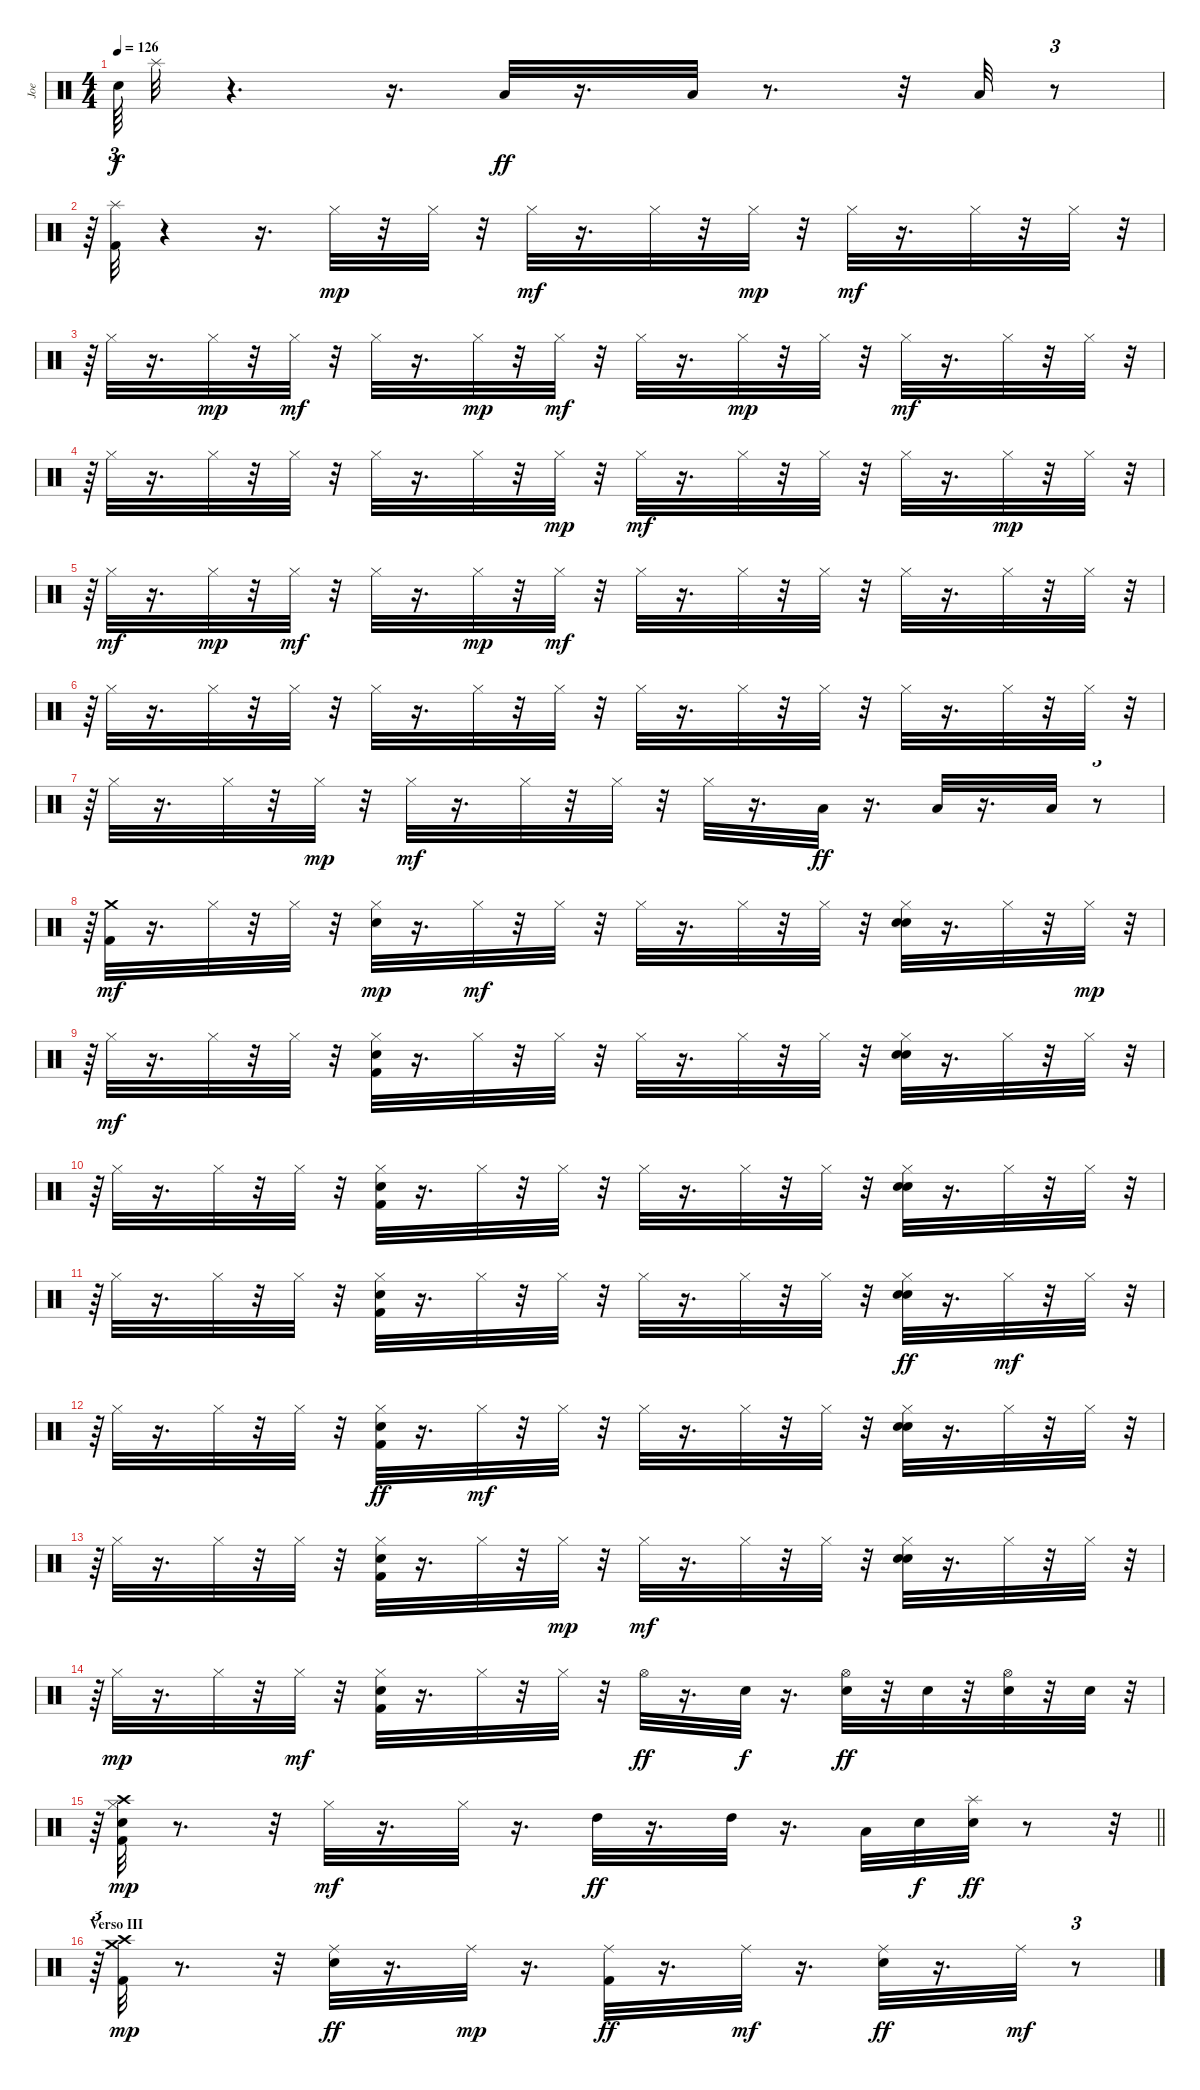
\track ("Joe" "Joe") {instrument percussion}
\staff {score}
\articulation defaults
\ts (4 4)
\tempo 126
\clef neutral
\ks c "Snare (hit)"{t}.64{tu (3 2) dy f} "Splash (hit)".32
r.4{d} r.16{d} "Low Tom (hit)".32{dy ff} r.16{d} "Low Tom (hit)".32 r.8{d} r.32 "Low Floor Tom (hit)".32 r.8{tu (3 2)} |
r.64{tu (3 2)} ("Kick (hit) 2" "Splash (hit)").32 r.4 r.16{d} "Hi-Hat (closed)".32{dy mp} r.32 "Hi-Hat (closed)".32 r.32 "Hi-Hat (closed)".32{dy mf} r.16{d} "Hi-Hat (closed)".32 r.32 "Hi-Hat (closed)".32{dy mp} r.32 "Hi-Hat (closed)".32{dy mf} r.16{d} "Hi-Hat (closed)".32 r.32 "Hi-Hat (closed)".32 r.32{tu (3 2)} |
r.64{tu (3 2)} "Hi-Hat (closed)".32 r.16{d} "Hi-Hat (closed)".32{dy mp} r.32 "Hi-Hat (closed)".32{dy mf} r.32 "Hi-Hat (closed)".32 r.16{d} "Hi-Hat (closed)".32{dy mp} r.32 "Hi-Hat (closed)".32{dy mf} r.32 "Hi-Hat (closed)".32 r.16{d} "Hi-Hat (closed)".32{dy mp} r.32 "Hi-Hat (closed)".32 r.32 "Hi-Hat (closed)".32{dy mf} r.16{d} "Hi-Hat (closed)".32 r.32 "Hi-Hat (closed)".32 r.32{tu (3 2)} |
r.64{tu (3 2)} "Hi-Hat (closed)".32 r.16{d} "Hi-Hat (closed)".32 r.32 "Hi-Hat (closed)".32 r.32 "Hi-Hat (closed)".32 r.16{d} "Hi-Hat (closed)".32 r.32 "Hi-Hat (closed)".32{dy mp} r.32 "Hi-Hat (closed)".32{dy mf} r.16{d} "Hi-Hat (closed)".32 r.32 "Hi-Hat (closed)".32 r.32 "Hi-Hat (closed)".32 r.16{d} "Hi-Hat (closed)".32{dy mp} r.32 "Hi-Hat (closed)".32 r.32{tu (3 2)} |
r.64{tu (3 2)} "Hi-Hat (closed)".32{dy mf} r.16{d} "Hi-Hat (closed)".32{dy mp} r.32 "Hi-Hat (closed)".32{dy mf} r.32 "Hi-Hat (closed)".32 r.16{d} "Hi-Hat (closed)".32{dy mp} r.32 "Hi-Hat (closed)".32{dy mf} r.32 "Hi-Hat (closed)".32 r.16{d} "Hi-Hat (closed)".32 r.32 "Hi-Hat (closed)".32 r.32 "Hi-Hat (closed)".32 r.16{d} "Hi-Hat (closed)".32 r.32 "Hi-Hat (closed)".32 r.32{tu (3 2)} |
r.64{tu (3 2)} "Hi-Hat (closed)".32 r.16{d} "Hi-Hat (closed)".32 r.32 "Hi-Hat (closed)".32 r.32 "Hi-Hat (closed)".32 r.16{d} "Hi-Hat (closed)".32 r.32 "Hi-Hat (closed)".32 r.32 "Hi-Hat (closed)".32 r.16{d} "Hi-Hat (closed)".32 r.32 "Hi-Hat (closed)".32 r.32 "Hi-Hat (closed)".32 r.16{d} "Hi-Hat (closed)".32 r.32 "Hi-Hat (closed)".32 r.32{tu (3 2)} |
r.64{tu (3 2)} "Hi-Hat (closed)".32 r.16{d} "Hi-Hat (closed)".32 r.32 "Hi-Hat (closed)".32{dy mp} r.32 "Hi-Hat (closed)".32{dy mf} r.16{d} "Hi-Hat (closed)".32 r.32 "Hi-Hat (closed)".32 r.32 "Hi-Hat (closed)".32 r.16{d} "Low Tom (hit)".32{dy ff} r.16{d} "Low Tom (hit)".32 r.16{d} "Low Floor Tom (hit)".32 r.8{tu (3 2)} |
r.64{tu (3 2)} ("Kick (hit) 2" "Crash medium (hit)").32{dy mf} r.16{d} "Hi-Hat (closed)".32 r.32 "Hi-Hat (closed)".32 r.32 ("Hi-Hat (closed)" "Hand Clap (hit)").32{dy mp} r.16{d} "Hi-Hat (closed)".32{dy mf} r.32 "Hi-Hat (closed)".32 r.32 "Hi-Hat (closed)".32 r.16{d} "Hi-Hat (closed)".32 r.32 "Hi-Hat (closed)".32 r.32 ("Electric Snare (hit)" "Hi-Hat (closed)" "Hand Clap (hit)").32 r.16{d} "Hi-Hat (closed)".32 r.32 "Hi-Hat (closed)".32{dy mp} r.32{tu (3 2)} |
r.64{tu (3 2)} "Hi-Hat (closed)".32{dy mf} r.16{d} "Hi-Hat (closed)".32 r.32 "Hi-Hat (closed)".32 r.32 ("Kick (hit) 2" "Hi-Hat (closed)" "Hand Clap (hit)").32 r.16{d} "Hi-Hat (closed)".32 r.32 "Hi-Hat (closed)".32 r.32 "Hi-Hat (closed)".32 r.16{d} "Hi-Hat (closed)".32 r.32 "Hi-Hat (closed)".32 r.32 ("Electric Snare (hit)" "Hi-Hat (closed)" "Hand Clap (hit)").32 r.16{d} "Hi-Hat (closed)".32 r.32 "Hi-Hat (closed)".32 r.32{tu (3 2)} |
r.64{tu (3 2)} "Hi-Hat (closed)".32 r.16{d} "Hi-Hat (closed)".32 r.32 "Hi-Hat (closed)".32 r.32 ("Kick (hit) 2" "Hi-Hat (closed)" "Hand Clap (hit)").32 r.16{d} "Hi-Hat (closed)".32 r.32 "Hi-Hat (closed)".32 r.32 "Hi-Hat (closed)".32 r.16{d} "Hi-Hat (closed)".32 r.32 "Hi-Hat (closed)".32 r.32 ("Electric Snare (hit)" "Hi-Hat (closed)" "Hand Clap (hit)").32 r.16{d} "Hi-Hat (closed)".32 r.32 "Hi-Hat (closed)".32 r.32{tu (3 2)} |
r.64{tu (3 2)} "Hi-Hat (closed)".32 r.16{d} "Hi-Hat (closed)".32 r.32 "Hi-Hat (closed)".32 r.32 ("Kick (hit) 2" "Hi-Hat (closed)" "Hand Clap (hit)").32 r.16{d} "Hi-Hat (closed)".32 r.32 "Hi-Hat (closed)".32 r.32 "Hi-Hat (closed)".32 r.16{d} "Hi-Hat (closed)".32 r.32 "Hi-Hat (closed)".32 r.32 ("Hi-Hat (closed)" "Hand Clap (hit)" "Electric Snare (hit)").32{dy ff} r.16{d} "Hi-Hat (closed)".32{dy mf} r.32 "Hi-Hat (closed)".32 r.32{tu (3 2)} |
r.64{tu (3 2)} "Hi-Hat (closed)".32 r.16{d} "Hi-Hat (closed)".32 r.32 "Hi-Hat (closed)".32 r.32 ("Hi-Hat (closed)" "Hand Clap (hit)" "Kick (hit) 2").32{dy ff} r.16{d} "Hi-Hat (closed)".32{dy mf} r.32 "Hi-Hat (closed)".32 r.32 "Hi-Hat (closed)".32 r.16{d} "Hi-Hat (closed)".32 r.32 "Hi-Hat (closed)".32 r.32 ("Electric Snare (hit)" "Hi-Hat (closed)" "Hand Clap (hit)").32 r.16{d} "Hi-Hat (closed)".32 r.32 "Hi-Hat (closed)".32 r.32{tu (3 2)} |
r.64{tu (3 2)} "Hi-Hat (closed)".32 r.16{d} "Hi-Hat (closed)".32 r.32 "Hi-Hat (closed)".32 r.32 ("Kick (hit) 2" "Hi-Hat (closed)" "Hand Clap (hit)").32 r.16{d} "Hi-Hat (closed)".32 r.32 "Hi-Hat (closed)".32{dy mp} r.32 "Hi-Hat (closed)".32{dy mf} r.16{d} "Hi-Hat (closed)".32 r.32 "Hi-Hat (closed)".32 r.32 ("Electric Snare (hit)" "Hi-Hat (closed)" "Hand Clap (hit)").32 r.16{d} "Hi-Hat (closed)".32 r.32 "Hi-Hat (closed)".32 r.32{tu (3 2)} |
r.64{tu (3 2)} "Hi-Hat (closed)".32{dy mp} r.16{d} "Hi-Hat (closed)".32 r.32 "Hi-Hat (closed)".32{dy mf} r.32 ("Kick (hit) 2" "Hand Clap (hit)" "Hi-Hat (closed)").32 r.16{d} "Hi-Hat (closed)".32 r.32 "Hi-Hat (closed)".32 r.32 "Hi-Hat (open)".32{dy ff} r.16{d} "Electric Snare (hit)".32{dy f} r.16{d} ("Hi-Hat (open)" "Electric Snare (hit)").32{dy ff} r.32 "Electric Snare (hit)".32 r.32 ("Electric Snare (hit)" "Hi-Hat (open)").32 r.32 "Electric Snare (hit)".32 r.32{tu (3 2)} |
\barLineRight lightlight
r.64{tu (3 2)} ("Hi-Hat (closed)" "Electric Snare (hit)" "Kick (hit) 2" "Crash high (hit)").32{dy mp} r.8{d} r.32 "Hi-Hat (closed)".32{dy mf} r.16{d} "Hi-Hat (closed)".32 r.16{d} "High Tom (hit)".32{dy ff} r.16{d} "High Tom (hit)".32 r.16{d} "Low Tom (hit)".32 "Electric Snare (hit)".32{dy f} ("Electric Snare (hit)" "Splash (hit)").32{dy ff} r.8 r.32{tu (3 2)} |
\section ("" "Verso III")
r.64{tu (3 2)} ("Kick (hit) 2" "Crash medium (hit)" "Crash high (hit)").32{dy mp} r.8{d} r.32 ("Ride (middle)" "Electric Snare (hit)").32{dy ff} r.16{d} "Ride (middle)".32{dy mp} r.16{d} ("Ride (middle)" "Kick (hit) 2").32{dy ff} r.16{d} "Ride (middle)".32{dy mf} r.16{d} ("Ride (middle)" "Electric Snare (hit)").32{dy ff} r.16{d} "Ride (middle)".32{dy mf} r.8{tu (3 2)}
